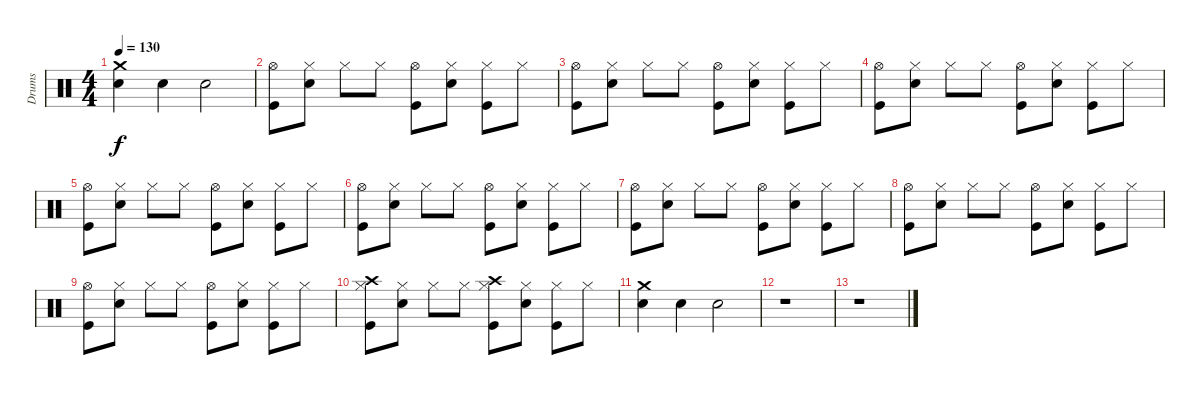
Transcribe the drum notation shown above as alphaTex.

\track ("Drums" "Drums") {instrument percussion}
\staff {score}
\articulation defaults
\ts (4 4)
\tempo 130
\clef neutral
\ks c
("Crash medium (hit)" "Snare (hit) 2").4{dy f} "Snare (hit) 2".4 "Snare (hit) 2".2 |
("Hi-Hat (open)" "Kick (hit)").8 ("Hi-Hat (closed)" "Snare (hit) 2").8 "Hi-Hat (closed)".8 "Hi-Hat (closed)".8 ("Hi-Hat (open)" "Kick (hit)").8 ("Hi-Hat (closed)" "Snare (hit) 2").8 ("Hi-Hat (closed)" "Kick (hit)").8 "Hi-Hat (closed)".8 |
("Hi-Hat (open)" "Kick (hit)").8 ("Hi-Hat (closed)" "Snare (hit) 2").8 "Hi-Hat (closed)".8 "Hi-Hat (closed)".8 ("Hi-Hat (open)" "Kick (hit)").8 ("Hi-Hat (closed)" "Snare (hit) 2").8 ("Hi-Hat (closed)" "Kick (hit)").8 "Hi-Hat (closed)".8 |
("Hi-Hat (open)" "Kick (hit)").8 ("Hi-Hat (closed)" "Snare (hit) 2").8 "Hi-Hat (closed)".8 "Hi-Hat (closed)".8 ("Hi-Hat (open)" "Kick (hit)").8 ("Hi-Hat (closed)" "Snare (hit) 2").8 ("Hi-Hat (closed)" "Kick (hit)").8 "Hi-Hat (closed)".8 |
("Hi-Hat (open)" "Kick (hit)").8 ("Hi-Hat (closed)" "Snare (hit) 2").8 "Hi-Hat (closed)".8 "Hi-Hat (closed)".8 ("Hi-Hat (open)" "Kick (hit)").8 ("Hi-Hat (closed)" "Snare (hit) 2").8 ("Hi-Hat (closed)" "Kick (hit)").8 "Hi-Hat (closed)".8 |
("Hi-Hat (open)" "Kick (hit)").8 ("Hi-Hat (closed)" "Snare (hit) 2").8 "Hi-Hat (closed)".8 "Hi-Hat (closed)".8 ("Hi-Hat (open)" "Kick (hit)").8 ("Hi-Hat (closed)" "Snare (hit) 2").8 ("Hi-Hat (closed)" "Kick (hit)").8 "Hi-Hat (closed)".8 |
("Hi-Hat (open)" "Kick (hit)").8 ("Hi-Hat (closed)" "Snare (hit) 2").8 "Hi-Hat (closed)".8 "Hi-Hat (closed)".8 ("Hi-Hat (open)" "Kick (hit)").8 ("Hi-Hat (closed)" "Snare (hit) 2").8 ("Hi-Hat (closed)" "Kick (hit)").8 "Hi-Hat (closed)".8 |
("Hi-Hat (open)" "Kick (hit)").8 ("Hi-Hat (closed)" "Snare (hit) 2").8 "Hi-Hat (closed)".8 "Hi-Hat (closed)".8 ("Hi-Hat (open)" "Kick (hit)").8 ("Hi-Hat (closed)" "Snare (hit) 2").8 ("Hi-Hat (closed)" "Kick (hit)").8 "Hi-Hat (closed)".8 |
("Hi-Hat (open)" "Kick (hit)").8 ("Hi-Hat (closed)" "Snare (hit) 2").8 "Hi-Hat (closed)".8 "Hi-Hat (closed)".8 ("Hi-Hat (open)" "Kick (hit)").8 ("Hi-Hat (closed)" "Snare (hit) 2").8 ("Hi-Hat (closed)" "Kick (hit)").8 "Hi-Hat (closed)".8 |
("Crash high (hit)" "Hi-Hat (closed)" "Kick (hit)").8 ("Hi-Hat (closed)" "Snare (hit) 2").8 "Hi-Hat (closed)".8 "Hi-Hat (closed)".8 ("Crash high (hit)" "Hi-Hat (closed)" "Kick (hit)").8 ("Hi-Hat (closed)" "Snare (hit) 2").8 ("Hi-Hat (closed)" "Kick (hit)").8 "Hi-Hat (closed)".8 |
("Crash medium (hit)" "Snare (hit) 2").4 "Snare (hit) 2".4 "Snare (hit) 2".2 |
r.1 |
r.1
